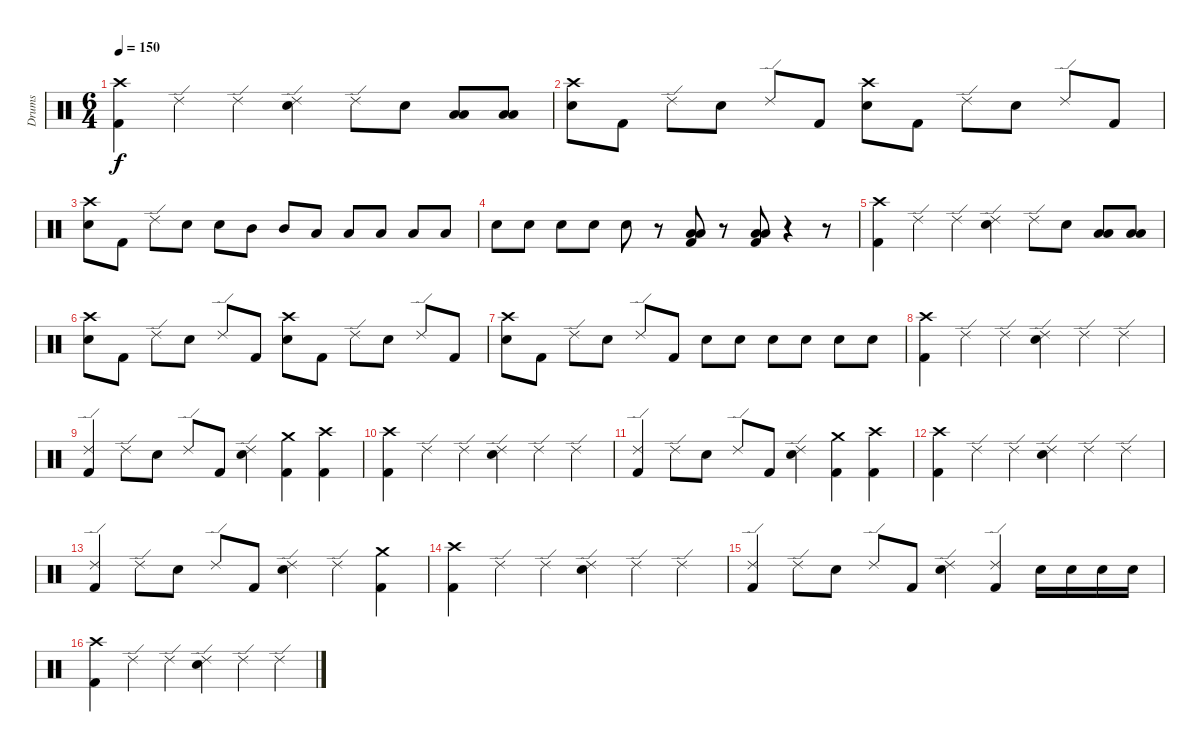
\track ("Drums" "Drums") {instrument percussion}
\staff {score}
\articulation defaults
\ts (6 4)
\tempo 150
\clef neutral
\ks c
("Crash high (hit)" "Kick (hit) 2").4{dy f} "Ride (edge) 2".4 "Ride (edge) 2".4 ("Ride (edge) 2" "Electric Snare (hit)").4 "Ride (edge) 2".8 "Electric Snare (hit)".8 ("Low Tom (hit)" "Low Floor Tom (hit)").8 ("Low Tom (hit)" "Low Floor Tom (hit)").8 |
("Crash high (hit)" "Electric Snare (hit)").8 "Kick (hit) 2".8 "Ride (edge) 2".8 "Electric Snare (hit)".8 "Ride (edge) 2".8 "Kick (hit) 2".8 ("Crash high (hit)" "Electric Snare (hit)").8 "Kick (hit) 2".8 "Ride (edge) 2".8 "Electric Snare (hit)".8 "Ride (edge) 2".8 "Kick (hit) 2".8 |
("Crash high (hit)" "Electric Snare (hit)").8 "Kick (hit) 2".8 "Ride (edge) 2".8 "Electric Snare (hit)".8 "Electric Snare (hit)".8 "Mid Tom (hit)".8 "Mid Tom (hit)".8 "Low Tom (hit)".8 "Low Tom (hit)".8 "Low Floor Tom (hit)".8 "Low Floor Tom (hit)".8 "Low Floor Tom (hit)".8 |
"Electric Snare (hit)".8 "Electric Snare (hit)".8 "Electric Snare (hit)".8 "Electric Snare (hit)".8 "Electric Snare (hit)".8 r.8 ("Low Tom (hit)" "Low Floor Tom (hit)" "Kick (hit) 2").8 r.8 ("Low Tom (hit)" "Low Floor Tom (hit)" "Kick (hit) 2").8 r.4 r.8 |
("Crash high (hit)" "Kick (hit) 2").4 "Ride (edge) 2".4 "Ride (edge) 2".4 ("Ride (edge) 2" "Electric Snare (hit)").4 "Ride (edge) 2".8 "Electric Snare (hit)".8 ("Low Tom (hit)" "Low Floor Tom (hit)").8 ("Low Tom (hit)" "Low Floor Tom (hit)").8 |
("Crash high (hit)" "Electric Snare (hit)").8 "Kick (hit) 2".8 "Ride (edge) 2".8 "Electric Snare (hit)".8 "Ride (edge) 2".8 "Kick (hit) 2".8 ("Crash high (hit)" "Electric Snare (hit)").8 "Kick (hit) 2".8 "Ride (edge) 2".8 "Electric Snare (hit)".8 "Ride (edge) 2".8 "Kick (hit) 2".8 |
("Crash high (hit)" "Electric Snare (hit)").8 "Kick (hit) 2".8 "Ride (edge) 2".8 "Electric Snare (hit)".8 "Ride (edge) 2".8 "Kick (hit) 2".8 "Electric Snare (hit)".8 "Electric Snare (hit)".8 "Electric Snare (hit)".8 "Electric Snare (hit)".8 "Electric Snare (hit)".8 "Electric Snare (hit)".8 |
("Crash high (hit)" "Kick (hit) 2").4 "Ride (edge) 2".4 "Ride (edge) 2".4 ("Ride (edge) 2" "Electric Snare (hit)").4 "Ride (edge) 2".4 "Ride (edge) 2".4 |
("Ride (edge) 2" "Kick (hit) 2").4 "Ride (edge) 2".8 "Electric Snare (hit)".8 "Ride (edge) 2".8 "Kick (hit) 2".8 ("Ride (edge) 2" "Electric Snare (hit)").4 ("Crash medium (hit)" "Kick (hit) 2").4 ("Crash high (hit)" "Kick (hit) 2").4 |
("Crash high (hit)" "Kick (hit) 2").4 "Ride (edge) 2".4 "Ride (edge) 2".4 ("Ride (edge) 2" "Electric Snare (hit)").4 "Ride (edge) 2".4 "Ride (edge) 2".4 |
("Ride (edge) 2" "Kick (hit) 2").4 "Ride (edge) 2".8 "Electric Snare (hit)".8 "Ride (edge) 2".8 "Kick (hit) 2".8 ("Ride (edge) 2" "Electric Snare (hit)").4 ("Crash medium (hit)" "Kick (hit) 2").4 ("Crash high (hit)" "Kick (hit) 2").4 |
("Crash high (hit)" "Kick (hit) 2").4 "Ride (edge) 2".4 "Ride (edge) 2".4 ("Ride (edge) 2" "Electric Snare (hit)").4 "Ride (edge) 2".4 "Ride (edge) 2".4 |
("Ride (edge) 2" "Kick (hit) 2").4 "Ride (edge) 2".8 "Electric Snare (hit)".8 "Ride (edge) 2".8 "Kick (hit) 2".8 ("Ride (edge) 2" "Electric Snare (hit)").4 "Ride (edge) 2".4 ("Crash medium (hit)" "Kick (hit) 2").4 |
("Crash high (hit)" "Kick (hit) 2").4 "Ride (edge) 2".4 "Ride (edge) 2".4 ("Ride (edge) 2" "Electric Snare (hit)").4 "Ride (edge) 2".4 "Ride (edge) 2".4 |
("Ride (edge) 2" "Kick (hit) 2").4 "Ride (edge) 2".8 "Electric Snare (hit)".8 "Ride (edge) 2".8 "Kick (hit) 2".8 ("Ride (edge) 2" "Electric Snare (hit)").4 ("Ride (edge) 2" "Kick (hit) 2").4 "Electric Snare (hit)".16 "Electric Snare (hit)".16 "Electric Snare (hit)".16 "Electric Snare (hit)".16 |
("Crash high (hit)" "Kick (hit) 2").4 "Ride (edge) 2".4 "Ride (edge) 2".4 ("Ride (edge) 2" "Electric Snare (hit)").4 "Ride (edge) 2".4 "Ride (edge) 2".4
